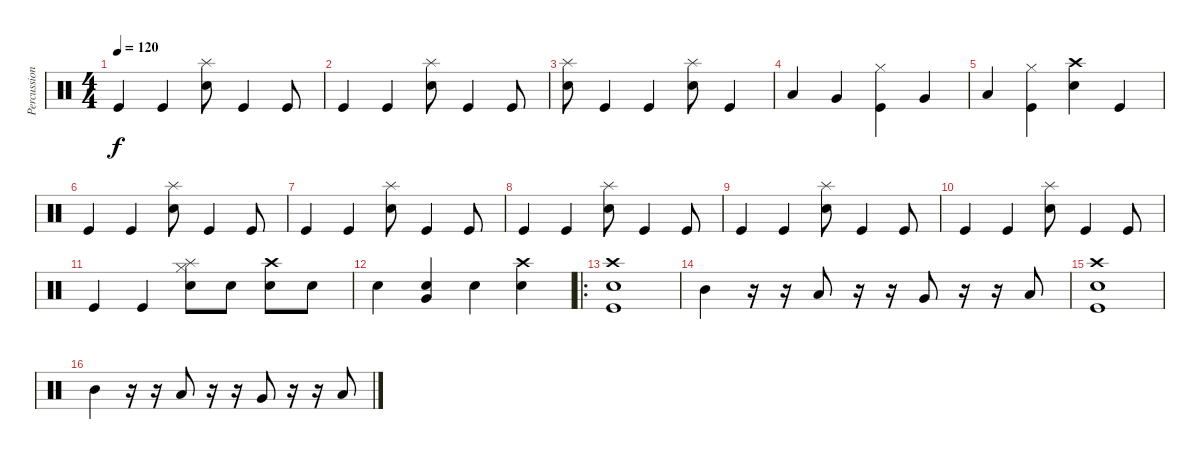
\track ("Percussion" "Percussion") {instrument percussion}
\staff {score}
\articulation defaults
\ts (4 4)
\tempo 120
\clef neutral
\ks c "Kick (hit)".4{dy f} "Kick (hit)".4
("Snare (hit) 2" "Splash (hit)").8 "Kick (hit)".4 "Kick (hit)".8 |
"Kick (hit)".4 "Kick (hit)".4 ("Snare (hit) 2" "Splash (hit)").8 "Kick (hit)".4 "Kick (hit)".8 |
("Snare (hit) 2" "Splash (hit)").8 "Kick (hit)".4 "Kick (hit)".4 ("Snare (hit) 2" "Splash (hit)").8 "Kick (hit)".4 |
"Low Floor Tom (hit)".4 "Very Low Tom (hit)".4 ("Hi-Hat (closed)" "Kick (hit)").4 "Very Low Tom (hit)".4 |
"Low Floor Tom (hit)".4 ("Hi-Hat (closed)" "Kick (hit)").4 ("Snare (hit) 2" "Crash high (hit)").4 "Kick (hit)".4 |
"Kick (hit)".4 "Kick (hit)".4 ("Snare (hit) 2" "Splash (hit)").8 "Kick (hit)".4 "Kick (hit)".8 |
"Kick (hit)".4 "Kick (hit)".4 ("Snare (hit) 2" "Splash (hit)").8 "Kick (hit)".4 "Kick (hit)".8 |
"Kick (hit)".4 "Kick (hit)".4 ("Snare (hit) 2" "Splash (hit)").8 "Kick (hit)".4 "Kick (hit)".8 |
"Kick (hit)".4 "Kick (hit)".4 ("Snare (hit) 2" "Splash (hit)").8 "Kick (hit)".4 "Kick (hit)".8 |
"Kick (hit)".4 "Kick (hit)".4 ("Snare (hit) 2" "Splash (hit)").8 "Kick (hit)".4 "Kick (hit)".8 |
"Kick (hit)".4 "Kick (hit)".4 ("Hi-Hat (closed)" "Splash (hit)" "Snare (hit) 2").8 "Snare (hit) 2".8 ("Crash high (hit)" "Snare (hit) 2").8 "Snare (hit) 2".8 |
"Snare (hit) 2".4 ("Very Low Tom (hit)" "Snare (hit) 2").4 "Snare (hit) 2".4 ("Crash high (hit)" "Snare (hit) 2").4 |
\ro
("Crash high (hit)" "Snare (hit) 2" "Kick (hit)").1 |
"Mid Tom (hit)".4 r.16 r.16 "Low Tom (hit)".8 r.16 r.16 "Very Low Tom (hit)".8 r.16 r.16 "Low Floor Tom (hit)".8 |
("Crash high (hit)" "Snare (hit) 2" "Kick (hit)").1 |
"Mid Tom (hit)".4 r.16 r.16 "Low Tom (hit)".8 r.16 r.16 "Very Low Tom (hit)".8 r.16 r.16 "Low Floor Tom (hit)".8
